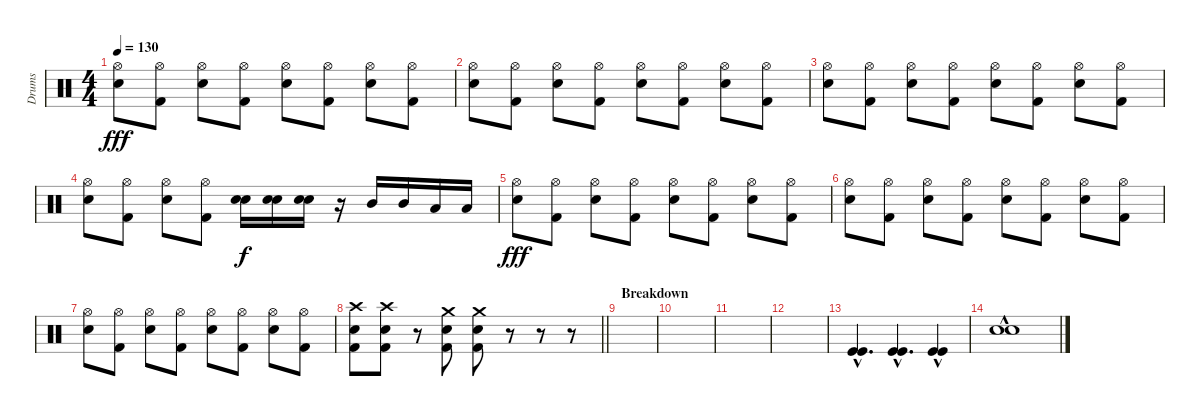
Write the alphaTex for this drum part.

\track ("Drums" "Drums") {instrument percussion}
\staff {score}
\articulation defaults
\ts (4 4)
\tempo 130
\clef neutral
\ks c
("Hi-Hat (open)" "Electric Snare (hit)").8{dy fff} ("Hi-Hat (open)" "Kick (hit) 2").8 ("Hi-Hat (open)" "Electric Snare (hit)").8 ("Hi-Hat (open)" "Kick (hit) 2").8 ("Hi-Hat (open)" "Electric Snare (hit)").8 ("Hi-Hat (open)" "Kick (hit) 2").8 ("Hi-Hat (open)" "Electric Snare (hit)").8 ("Hi-Hat (open)" "Kick (hit) 2").8 |
("Hi-Hat (open)" "Electric Snare (hit)").8 ("Hi-Hat (open)" "Kick (hit) 2").8 ("Hi-Hat (open)" "Electric Snare (hit)").8 ("Hi-Hat (open)" "Kick (hit) 2").8 ("Hi-Hat (open)" "Electric Snare (hit)").8 ("Hi-Hat (open)" "Kick (hit) 2").8 ("Hi-Hat (open)" "Electric Snare (hit)").8 ("Hi-Hat (open)" "Kick (hit) 2").8 |
("Hi-Hat (open)" "Electric Snare (hit)").8 ("Hi-Hat (open)" "Kick (hit) 2").8 ("Hi-Hat (open)" "Electric Snare (hit)").8 ("Hi-Hat (open)" "Kick (hit) 2").8 ("Hi-Hat (open)" "Electric Snare (hit)").8 ("Hi-Hat (open)" "Kick (hit) 2").8 ("Hi-Hat (open)" "Electric Snare (hit)").8 ("Hi-Hat (open)" "Kick (hit) 2").8 |
("Hi-Hat (open)" "Electric Snare (hit)").8 ("Hi-Hat (open)" "Kick (hit) 2").8 ("Hi-Hat (open)" "Electric Snare (hit)").8 ("Hi-Hat (open)" "Kick (hit) 2").8 ("Electric Snare (hit)" "Electric Snare (hit)").16{dy f} ("Electric Snare (hit)" "Electric Snare (hit)").16 ("Electric Snare (hit)" "Electric Snare (hit)").16 r.16 "Mid Tom (hit)".16 "Mid Tom (hit)".16 "Low Tom (hit)".16 "Low Tom (hit)".16 |
("Hi-Hat (open)" "Electric Snare (hit)").8{dy fff} ("Hi-Hat (open)" "Kick (hit) 2").8 ("Hi-Hat (open)" "Electric Snare (hit)").8 ("Hi-Hat (open)" "Kick (hit) 2").8 ("Hi-Hat (open)" "Electric Snare (hit)").8 ("Hi-Hat (open)" "Kick (hit) 2").8 ("Hi-Hat (open)" "Electric Snare (hit)").8 ("Hi-Hat (open)" "Kick (hit) 2").8 |
("Hi-Hat (open)" "Electric Snare (hit)").8 ("Hi-Hat (open)" "Kick (hit) 2").8 ("Hi-Hat (open)" "Electric Snare (hit)").8 ("Hi-Hat (open)" "Kick (hit) 2").8 ("Hi-Hat (open)" "Electric Snare (hit)").8 ("Hi-Hat (open)" "Kick (hit) 2").8 ("Hi-Hat (open)" "Electric Snare (hit)").8 ("Hi-Hat (open)" "Kick (hit) 2").8 |
("Hi-Hat (open)" "Electric Snare (hit)").8 ("Hi-Hat (open)" "Kick (hit) 2").8 ("Hi-Hat (open)" "Electric Snare (hit)").8 ("Hi-Hat (open)" "Kick (hit) 2").8 ("Hi-Hat (open)" "Electric Snare (hit)").8 ("Hi-Hat (open)" "Kick (hit) 2").8 ("Hi-Hat (open)" "Electric Snare (hit)").8 ("Hi-Hat (open)" "Kick (hit) 2").8 |
\barLineRight lightlight
("Crash high (hit)" "Electric Snare (hit)" "Kick (hit) 2").8 ("Crash high (hit)" "Electric Snare (hit)" "Kick (hit) 2").8 r.8 ("Crash medium (hit)" "Electric Snare (hit)" "Kick (hit) 2").8 ("Crash medium (hit)" "Electric Snare (hit)" "Kick (hit) 2").8 r.8 r.8 r.8 |
\section ("" "Breakdown")
|
|
|
|
("Kick (hit)"{hac} "Kick (hit)"{hac}).4{d} ("Kick (hit)"{hac} "Kick (hit)"{hac}).4{d} ("Kick (hit)"{hac} "Kick (hit)"{hac}).4 |
("Electric Snare (hit)"{hac} "Electric Snare (hit)"{hac}).1
